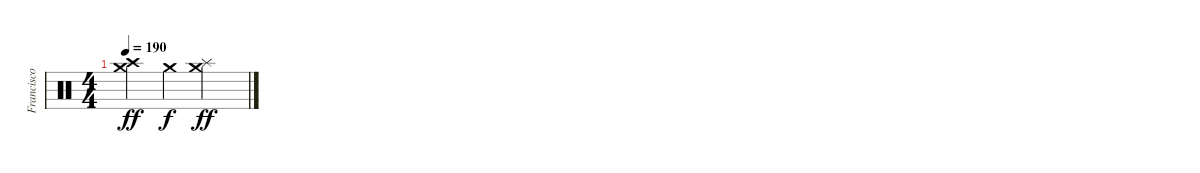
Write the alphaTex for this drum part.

\track ("Francisco Izquierdo (Percusión)" "Francisco ") {instrument percussion}
\staff {score}
\articulation defaults
\ts (4 4)
\tempo 190
\clef neutral
\ks c
("Crash medium (hit)" "Crash high (hit)").4{dy ff} "Crash medium (hit)".4{dy f} ("Crash medium (hit)" "Splash (hit)").2{dy ff}
